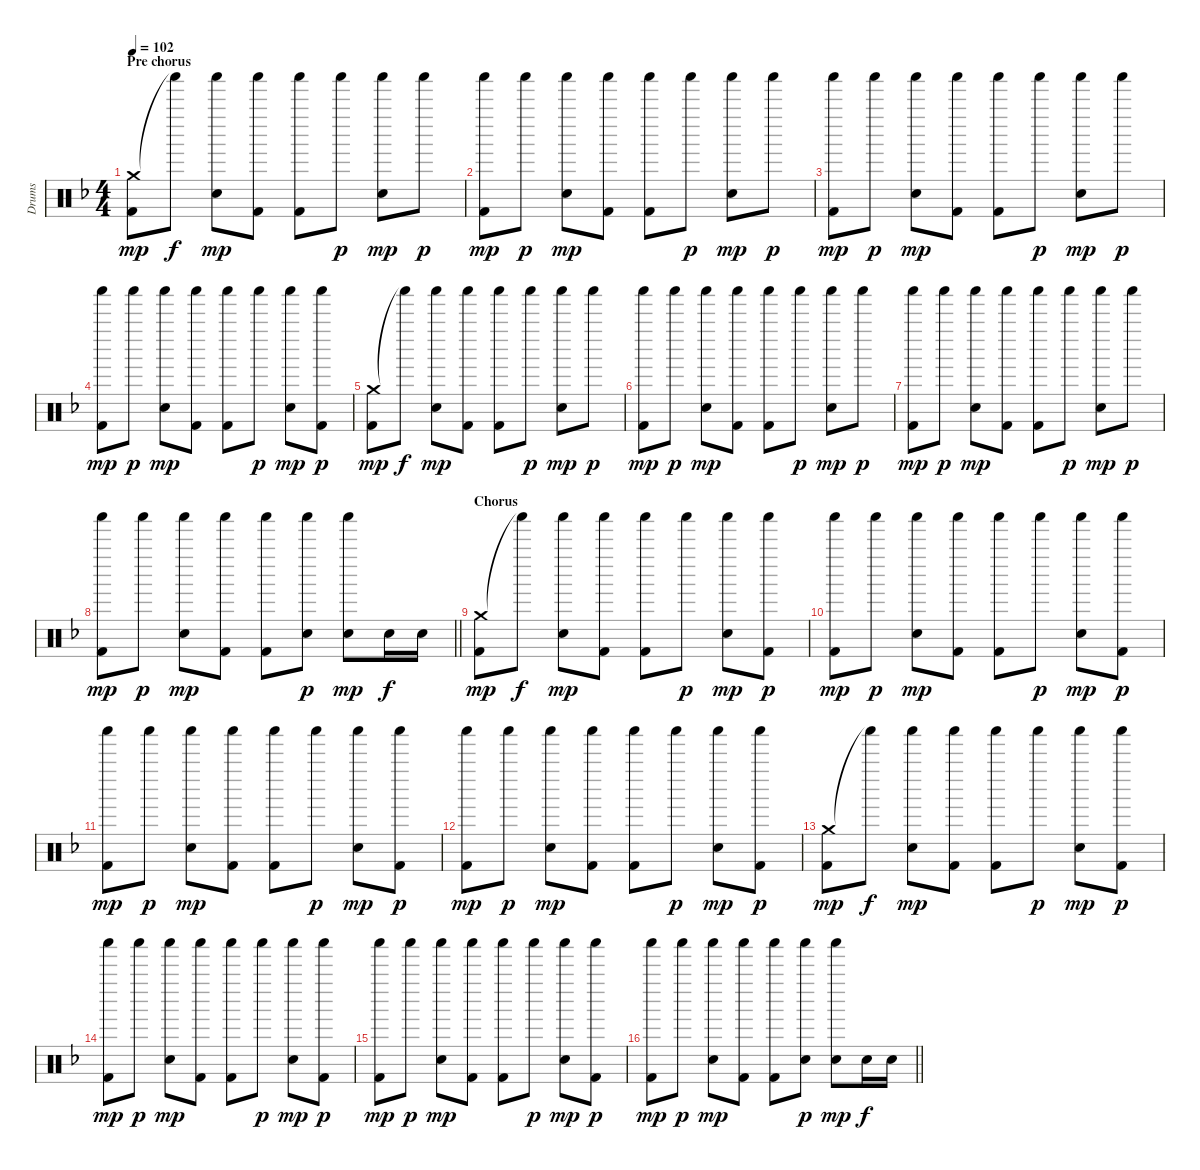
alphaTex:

\track ("Drums" "Drums") {instrument percussion}
\staff {score}
\articulation defaults
\ts (4 4)
\section ("" "Pre chorus")
\tempo 102
\clef neutral
\ks dminor
("Crash medium (hit)" "Kick (hit) 2").8{dy mp} "Shaker (hit)"{t}.8{dy f} ("Shaker (hit)" "Snare (hit) 2").8{dy mp} ("Shaker (hit)" "Kick (hit) 2").8 ("Shaker (hit)" "Kick (hit) 2").8 "Shaker (hit)".8{dy p} ("Shaker (hit)" "Snare (hit) 2").8{dy mp} "Shaker (hit)".8{dy p} |
("Shaker (hit)" "Kick (hit) 2").8{dy mp} "Shaker (hit)".8{dy p} ("Shaker (hit)" "Snare (hit) 2").8{dy mp} ("Shaker (hit)" "Kick (hit) 2").8 ("Shaker (hit)" "Kick (hit) 2").8 "Shaker (hit)".8{dy p} ("Shaker (hit)" "Snare (hit) 2").8{dy mp} "Shaker (hit)".8{dy p} |
("Shaker (hit)" "Kick (hit) 2").8{dy mp} "Shaker (hit)".8{dy p} ("Shaker (hit)" "Snare (hit) 2").8{dy mp} ("Shaker (hit)" "Kick (hit) 2").8 ("Shaker (hit)" "Kick (hit) 2").8 "Shaker (hit)".8{dy p} ("Shaker (hit)" "Snare (hit) 2").8{dy mp} "Shaker (hit)".8{dy p} |
("Shaker (hit)" "Kick (hit) 2").8{dy mp} "Shaker (hit)".8{dy p} ("Shaker (hit)" "Snare (hit) 2").8{dy mp} ("Shaker (hit)" "Kick (hit) 2").8 ("Shaker (hit)" "Kick (hit) 2").8 "Shaker (hit)".8{dy p} ("Shaker (hit)" "Snare (hit) 2").8{dy mp} ("Shaker (hit)" "Kick (hit) 2").8{dy p} |
("Crash medium (hit)" "Kick (hit) 2").8{dy mp} "Shaker (hit)"{t}.8{dy f} ("Shaker (hit)" "Snare (hit) 2").8{dy mp} ("Shaker (hit)" "Kick (hit) 2").8 ("Shaker (hit)" "Kick (hit) 2").8 "Shaker (hit)".8{dy p} ("Shaker (hit)" "Snare (hit) 2").8{dy mp} "Shaker (hit)".8{dy p} |
("Shaker (hit)" "Kick (hit) 2").8{dy mp} "Shaker (hit)".8{dy p} ("Shaker (hit)" "Snare (hit) 2").8{dy mp} ("Shaker (hit)" "Kick (hit) 2").8 ("Shaker (hit)" "Kick (hit) 2").8 "Shaker (hit)".8{dy p} ("Shaker (hit)" "Snare (hit) 2").8{dy mp} "Shaker (hit)".8{dy p} |
("Shaker (hit)" "Kick (hit) 2").8{dy mp} "Shaker (hit)".8{dy p} ("Shaker (hit)" "Snare (hit) 2").8{dy mp} ("Shaker (hit)" "Kick (hit) 2").8 ("Shaker (hit)" "Kick (hit) 2").8 "Shaker (hit)".8{dy p} ("Shaker (hit)" "Snare (hit) 2").8{dy mp} "Shaker (hit)".8{dy p} |
\barLineRight lightlight
("Shaker (hit)" "Kick (hit) 2").8{dy mp} "Shaker (hit)".8{dy p} ("Shaker (hit)" "Snare (hit) 2").8{dy mp} ("Shaker (hit)" "Kick (hit) 2").8 ("Shaker (hit)" "Kick (hit) 2").8 ("Shaker (hit)" "Snare (hit) 2").8{dy p} ("Shaker (hit)" "Snare (hit) 2").8{dy mp} "Snare (hit) 2".16{dy f} "Snare (hit) 2".16 |
\section ("" "Chorus")
("Crash medium (hit)" "Kick (hit) 2").8{dy mp} "Shaker (hit)"{t}.8{dy f} ("Shaker (hit)" "Snare (hit) 2").8{dy mp} ("Shaker (hit)" "Kick (hit) 2").8 ("Shaker (hit)" "Kick (hit) 2").8 "Shaker (hit)".8{dy p} ("Shaker (hit)" "Snare (hit) 2").8{dy mp} ("Shaker (hit)" "Kick (hit) 2").8{dy p} |
("Shaker (hit)" "Kick (hit) 2").8{dy mp} "Shaker (hit)".8{dy p} ("Shaker (hit)" "Snare (hit) 2").8{dy mp} ("Shaker (hit)" "Kick (hit) 2").8 ("Shaker (hit)" "Kick (hit) 2").8 "Shaker (hit)".8{dy p} ("Shaker (hit)" "Snare (hit) 2").8{dy mp} ("Shaker (hit)" "Kick (hit) 2").8{dy p} |
("Shaker (hit)" "Kick (hit) 2").8{dy mp} "Shaker (hit)".8{dy p} ("Shaker (hit)" "Snare (hit) 2").8{dy mp} ("Shaker (hit)" "Kick (hit) 2").8 ("Shaker (hit)" "Kick (hit) 2").8 "Shaker (hit)".8{dy p} ("Shaker (hit)" "Snare (hit) 2").8{dy mp} ("Shaker (hit)" "Kick (hit) 2").8{dy p} |
("Shaker (hit)" "Kick (hit) 2").8{dy mp} "Shaker (hit)".8{dy p} ("Shaker (hit)" "Snare (hit) 2").8{dy mp} ("Shaker (hit)" "Kick (hit) 2").8 ("Shaker (hit)" "Kick (hit) 2").8 "Shaker (hit)".8{dy p} ("Shaker (hit)" "Snare (hit) 2").8{dy mp} ("Shaker (hit)" "Kick (hit) 2").8{dy p} |
("Crash medium (hit)" "Kick (hit) 2").8{dy mp} "Shaker (hit)"{t}.8{dy f} ("Shaker (hit)" "Snare (hit) 2").8{dy mp} ("Shaker (hit)" "Kick (hit) 2").8 ("Shaker (hit)" "Kick (hit) 2").8 "Shaker (hit)".8{dy p} ("Shaker (hit)" "Snare (hit) 2").8{dy mp} ("Shaker (hit)" "Kick (hit) 2").8{dy p} |
("Shaker (hit)" "Kick (hit) 2").8{dy mp} "Shaker (hit)".8{dy p} ("Shaker (hit)" "Snare (hit) 2").8{dy mp} ("Shaker (hit)" "Kick (hit) 2").8 ("Shaker (hit)" "Kick (hit) 2").8 "Shaker (hit)".8{dy p} ("Shaker (hit)" "Snare (hit) 2").8{dy mp} ("Shaker (hit)" "Kick (hit) 2").8{dy p} |
("Shaker (hit)" "Kick (hit) 2").8{dy mp} "Shaker (hit)".8{dy p} ("Shaker (hit)" "Snare (hit) 2").8{dy mp} ("Shaker (hit)" "Kick (hit) 2").8 ("Shaker (hit)" "Kick (hit) 2").8 "Shaker (hit)".8{dy p} ("Shaker (hit)" "Snare (hit) 2").8{dy mp} ("Shaker (hit)" "Kick (hit) 2").8{dy p} |
\barLineRight lightlight
("Shaker (hit)" "Kick (hit) 2").8{dy mp} "Shaker (hit)".8{dy p} ("Shaker (hit)" "Snare (hit) 2").8{dy mp} ("Shaker (hit)" "Kick (hit) 2").8 ("Shaker (hit)" "Kick (hit) 2").8 ("Shaker (hit)" "Snare (hit) 2").8{dy p} ("Shaker (hit)" "Snare (hit) 2").8{dy mp} "Snare (hit) 2".16{dy f} "Snare (hit) 2".16
